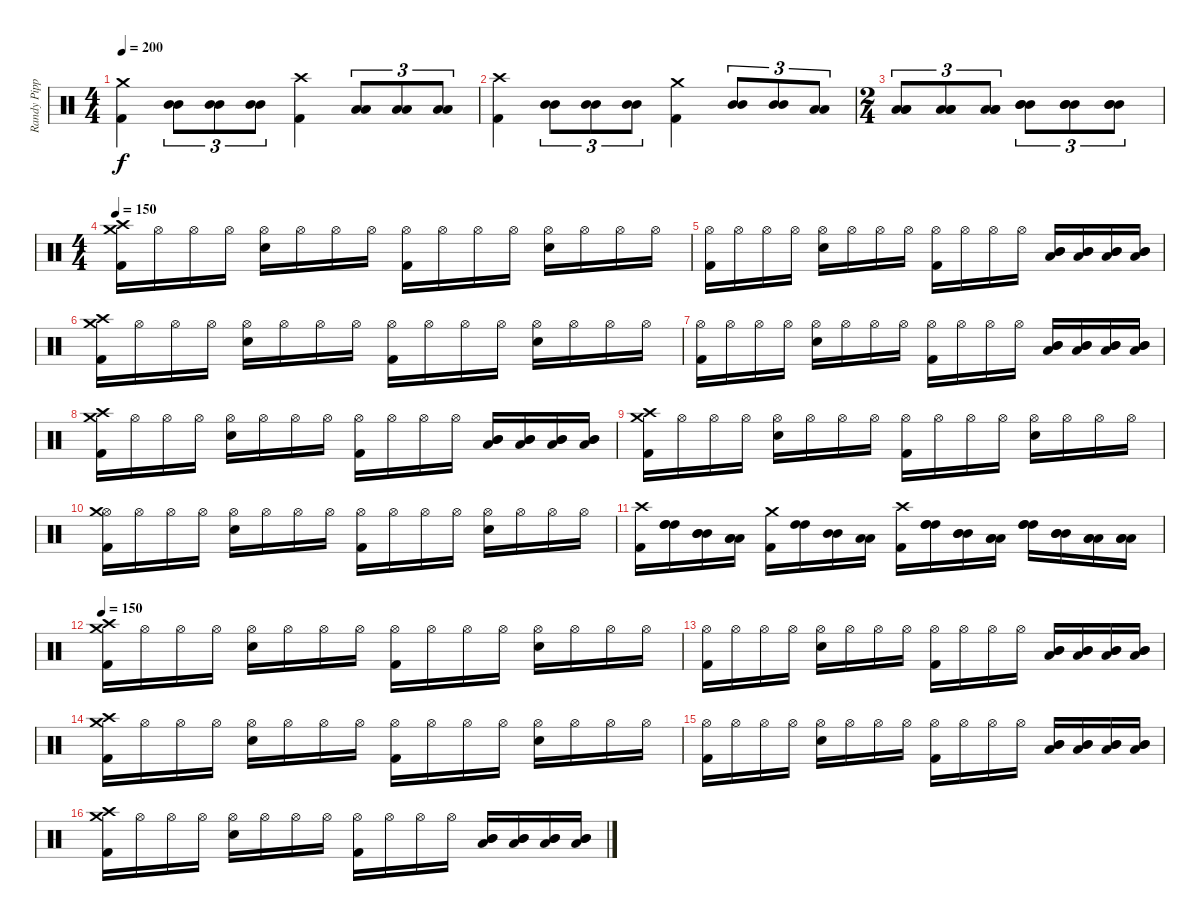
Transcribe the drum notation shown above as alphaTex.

\track ("Randy Pipper" "Randy Pipp") {instrument percussion}
\staff {score}
\articulation defaults
\ts (4 4)
\tempo 200
\clef neutral
\ks c
("Kick (hit) 2" "Crash medium (hit)").4{dy f} ("Mid Tom (hit)" "Mid Tom (hit)").8{tu (3 2)} ("Mid Tom (hit)" "Mid Tom (hit)").8{tu (3 2)} ("Mid Tom (hit)" "Mid Tom (hit)").8{tu (3 2)} ("Kick (hit) 2" "Crash high (hit)").4 ("Low Tom (hit)" "Low Tom (hit)").8{tu (3 2)} ("Low Tom (hit)" "Low Tom (hit)").8{tu (3 2)} ("Low Tom (hit)" "Low Tom (hit)").8{tu (3 2)} |
("Kick (hit) 2" "Crash high (hit)").4 ("Mid Tom (hit)" "Mid Tom (hit)").8{tu (3 2)} ("Mid Tom (hit)" "Mid Tom (hit)").8{tu (3 2)} ("Mid Tom (hit)" "Mid Tom (hit)").8{tu (3 2)} ("Crash medium (hit)" "Kick (hit) 2").4 ("Mid Tom (hit)" "Mid Tom (hit)").8{tu (3 2)} ("Mid Tom (hit)" "Mid Tom (hit)").8{tu (3 2)} ("Low Tom (hit)" "Low Tom (hit)").8{tu (3 2)} |
\ts (2 4)
("Low Tom (hit)" "Low Tom (hit)" "Low Tom (hit)").8{tu (3 2)} ("Low Tom (hit)" "Low Tom (hit)" "Low Tom (hit)").8{tu (3 2)} ("Low Tom (hit)" "Low Tom (hit)" "Low Tom (hit)").8{tu (3 2)} ("Mid Tom (hit)" "Mid Tom (hit)" "Mid Tom (hit)").8{tu (3 2)} ("Mid Tom (hit)" "Mid Tom (hit)" "Mid Tom (hit)").8{tu (3 2)} ("Mid Tom (hit)" "Mid Tom (hit)" "Mid Tom (hit)").8{tu (3 2)} |
\ts (4 4)
\tempo 150
("Crash medium (hit)" "Kick (hit) 2" "Crash high (hit)").16 "Hi-Hat (open)".16 "Hi-Hat (open)".16 "Hi-Hat (open)".16 ("Hi-Hat (open)" "Snare (hit) 2").16 "Hi-Hat (open)".16 "Hi-Hat (open)".16 "Hi-Hat (open)".16 ("Hi-Hat (open)" "Kick (hit) 2").16 "Hi-Hat (open)".16 "Hi-Hat (open)".16 "Hi-Hat (open)".16 ("Hi-Hat (open)" "Snare (hit) 2").16 "Hi-Hat (open)".16 "Hi-Hat (open)".16 "Hi-Hat (open)".16 |
("Hi-Hat (open)" "Kick (hit) 2").16 "Hi-Hat (open)".16 "Hi-Hat (open)".16 "Hi-Hat (open)".16 ("Hi-Hat (open)" "Snare (hit) 2").16 "Hi-Hat (open)".16 "Hi-Hat (open)".16 "Hi-Hat (open)".16 ("Hi-Hat (open)" "Kick (hit) 2").16 "Hi-Hat (open)".16 "Hi-Hat (open)".16 "Hi-Hat (open)".16 ("Low Tom (hit)" "Mid Tom (hit)" "Mid Tom (hit)").16 ("Low Tom (hit)" "Mid Tom (hit)" "Mid Tom (hit)").16 ("Low Tom (hit)" "Mid Tom (hit)" "Mid Tom (hit)").16 ("Low Tom (hit)" "Mid Tom (hit)" "Mid Tom (hit)").16 |
("Crash medium (hit)" "Kick (hit) 2" "Crash high (hit)").16 "Hi-Hat (open)".16 "Hi-Hat (open)".16 "Hi-Hat (open)".16 ("Hi-Hat (open)" "Snare (hit) 2").16 "Hi-Hat (open)".16 "Hi-Hat (open)".16 "Hi-Hat (open)".16 ("Hi-Hat (open)" "Kick (hit) 2").16 "Hi-Hat (open)".16 "Hi-Hat (open)".16 "Hi-Hat (open)".16 ("Hi-Hat (open)" "Snare (hit) 2").16 "Hi-Hat (open)".16 "Hi-Hat (open)".16 "Hi-Hat (open)".16 |
("Hi-Hat (open)" "Kick (hit) 2").16 "Hi-Hat (open)".16 "Hi-Hat (open)".16 "Hi-Hat (open)".16 ("Hi-Hat (open)" "Snare (hit) 2").16 "Hi-Hat (open)".16 "Hi-Hat (open)".16 "Hi-Hat (open)".16 ("Hi-Hat (open)" "Kick (hit) 2").16 "Hi-Hat (open)".16 "Hi-Hat (open)".16 "Hi-Hat (open)".16 ("Low Tom (hit)" "Mid Tom (hit)" "Mid Tom (hit)").16 ("Low Tom (hit)" "Mid Tom (hit)" "Mid Tom (hit)").16 ("Low Tom (hit)" "Mid Tom (hit)" "Mid Tom (hit)").16 ("Low Tom (hit)" "Mid Tom (hit)" "Mid Tom (hit)").16 |
("Crash high (hit)" "Kick (hit) 2" "Crash medium (hit)").16 "Hi-Hat (open)".16 "Hi-Hat (open)".16 "Hi-Hat (open)".16 ("Hi-Hat (open)" "Snare (hit) 2").16 "Hi-Hat (open)".16 "Hi-Hat (open)".16 "Hi-Hat (open)".16 ("Hi-Hat (open)" "Kick (hit) 2").16 "Hi-Hat (open)".16 "Hi-Hat (open)".16 "Hi-Hat (open)".16 ("Low Tom (hit)" "Mid Tom (hit)" "Mid Tom (hit)").16 ("Low Tom (hit)" "Mid Tom (hit)" "Mid Tom (hit)").16 ("Low Tom (hit)" "Mid Tom (hit)" "Mid Tom (hit)").16 ("Low Tom (hit)" "Mid Tom (hit)" "Mid Tom (hit)").16 |
("Crash medium (hit)" "Kick (hit) 2" "Crash high (hit)").16 "Hi-Hat (open)".16 "Hi-Hat (open)".16 "Hi-Hat (open)".16 ("Hi-Hat (open)" "Snare (hit) 2").16 "Hi-Hat (open)".16 "Hi-Hat (open)".16 "Hi-Hat (open)".16 ("Hi-Hat (open)" "Kick (hit) 2").16 "Hi-Hat (open)".16 "Hi-Hat (open)".16 "Hi-Hat (open)".16 ("Hi-Hat (open)" "Snare (hit) 2").16 "Hi-Hat (open)".16 "Hi-Hat (open)".16 "Hi-Hat (open)".16 |
("Hi-Hat (open)" "Kick (hit) 2" "Crash medium (hit)").16 "Hi-Hat (open)".16 "Hi-Hat (open)".16 "Hi-Hat (open)".16 ("Hi-Hat (open)" "Snare (hit) 2").16 "Hi-Hat (open)".16 "Hi-Hat (open)".16 "Hi-Hat (open)".16 ("Hi-Hat (open)" "Kick (hit) 2").16 "Hi-Hat (open)".16 "Hi-Hat (open)".16 "Hi-Hat (open)".16 ("Hi-Hat (open)" "Snare (hit) 2").16 "Hi-Hat (open)".16 "Hi-Hat (open)".16 "Hi-Hat (open)".16 |
("Kick (hit) 2" "Crash high (hit)").16 ("High Tom (hit)" "High Tom (hit)" "High Tom (hit)").16 ("Mid Tom (hit)" "Mid Tom (hit)" "Mid Tom (hit)").16 ("Low Tom (hit)" "Low Tom (hit)" "Low Tom (hit)").16 ("Kick (hit) 2" "Crash medium (hit)").16 ("High Tom (hit)" "High Tom (hit)").16 ("Mid Tom (hit)" "Mid Tom (hit)").16 ("Low Tom (hit)" "Low Tom (hit)").16 ("Kick (hit) 2" "Crash high (hit)").16 ("High Tom (hit)" "High Tom (hit)" "High Tom (hit)").16 ("Mid Tom (hit)" "Mid Tom (hit)" "Mid Tom (hit)").16 ("Low Tom (hit)" "Low Tom (hit)" "Low Tom (hit)").16 ("High Tom (hit)" "High Tom (hit)" "High Tom (hit)").16 ("Mid Tom (hit)" "Mid Tom (hit)" "Mid Tom (hit)").16 ("Low Tom (hit)" "Low Tom (hit)" "Low Tom (hit)").16 ("Low Tom (hit)" "Low Tom (hit)" "Low Tom (hit)").16 |
\tempo 150
("Crash medium (hit)" "Kick (hit) 2" "Crash high (hit)").16 "Hi-Hat (open)".16 "Hi-Hat (open)".16 "Hi-Hat (open)".16 ("Hi-Hat (open)" "Snare (hit) 2").16 "Hi-Hat (open)".16 "Hi-Hat (open)".16 "Hi-Hat (open)".16 ("Hi-Hat (open)" "Kick (hit) 2").16 "Hi-Hat (open)".16 "Hi-Hat (open)".16 "Hi-Hat (open)".16 ("Hi-Hat (open)" "Snare (hit) 2").16 "Hi-Hat (open)".16 "Hi-Hat (open)".16 "Hi-Hat (open)".16 |
("Hi-Hat (open)" "Kick (hit) 2").16 "Hi-Hat (open)".16 "Hi-Hat (open)".16 "Hi-Hat (open)".16 ("Hi-Hat (open)" "Snare (hit) 2").16 "Hi-Hat (open)".16 "Hi-Hat (open)".16 "Hi-Hat (open)".16 ("Hi-Hat (open)" "Kick (hit) 2").16 "Hi-Hat (open)".16 "Hi-Hat (open)".16 "Hi-Hat (open)".16 ("Low Tom (hit)" "Mid Tom (hit)" "Mid Tom (hit)").16 ("Low Tom (hit)" "Mid Tom (hit)" "Mid Tom (hit)").16 ("Low Tom (hit)" "Mid Tom (hit)" "Mid Tom (hit)").16 ("Low Tom (hit)" "Mid Tom (hit)" "Mid Tom (hit)").16 |
("Crash medium (hit)" "Kick (hit) 2" "Crash high (hit)").16 "Hi-Hat (open)".16 "Hi-Hat (open)".16 "Hi-Hat (open)".16 ("Hi-Hat (open)" "Snare (hit) 2").16 "Hi-Hat (open)".16 "Hi-Hat (open)".16 "Hi-Hat (open)".16 ("Hi-Hat (open)" "Kick (hit) 2").16 "Hi-Hat (open)".16 "Hi-Hat (open)".16 "Hi-Hat (open)".16 ("Hi-Hat (open)" "Snare (hit) 2").16 "Hi-Hat (open)".16 "Hi-Hat (open)".16 "Hi-Hat (open)".16 |
("Hi-Hat (open)" "Kick (hit) 2").16 "Hi-Hat (open)".16 "Hi-Hat (open)".16 "Hi-Hat (open)".16 ("Hi-Hat (open)" "Snare (hit) 2").16 "Hi-Hat (open)".16 "Hi-Hat (open)".16 "Hi-Hat (open)".16 ("Hi-Hat (open)" "Kick (hit) 2").16 "Hi-Hat (open)".16 "Hi-Hat (open)".16 "Hi-Hat (open)".16 ("Low Tom (hit)" "Mid Tom (hit)" "Mid Tom (hit)").16 ("Low Tom (hit)" "Mid Tom (hit)" "Mid Tom (hit)").16 ("Low Tom (hit)" "Mid Tom (hit)" "Mid Tom (hit)").16 ("Low Tom (hit)" "Mid Tom (hit)" "Mid Tom (hit)").16 |
("Crash high (hit)" "Kick (hit) 2" "Crash medium (hit)").16 "Hi-Hat (open)".16 "Hi-Hat (open)".16 "Hi-Hat (open)".16 ("Hi-Hat (open)" "Snare (hit) 2").16 "Hi-Hat (open)".16 "Hi-Hat (open)".16 "Hi-Hat (open)".16 ("Hi-Hat (open)" "Kick (hit) 2").16 "Hi-Hat (open)".16 "Hi-Hat (open)".16 "Hi-Hat (open)".16 ("Low Tom (hit)" "Mid Tom (hit)" "Mid Tom (hit)").16 ("Low Tom (hit)" "Mid Tom (hit)" "Mid Tom (hit)").16 ("Low Tom (hit)" "Mid Tom (hit)" "Mid Tom (hit)").16 ("Low Tom (hit)" "Mid Tom (hit)" "Mid Tom (hit)").16
